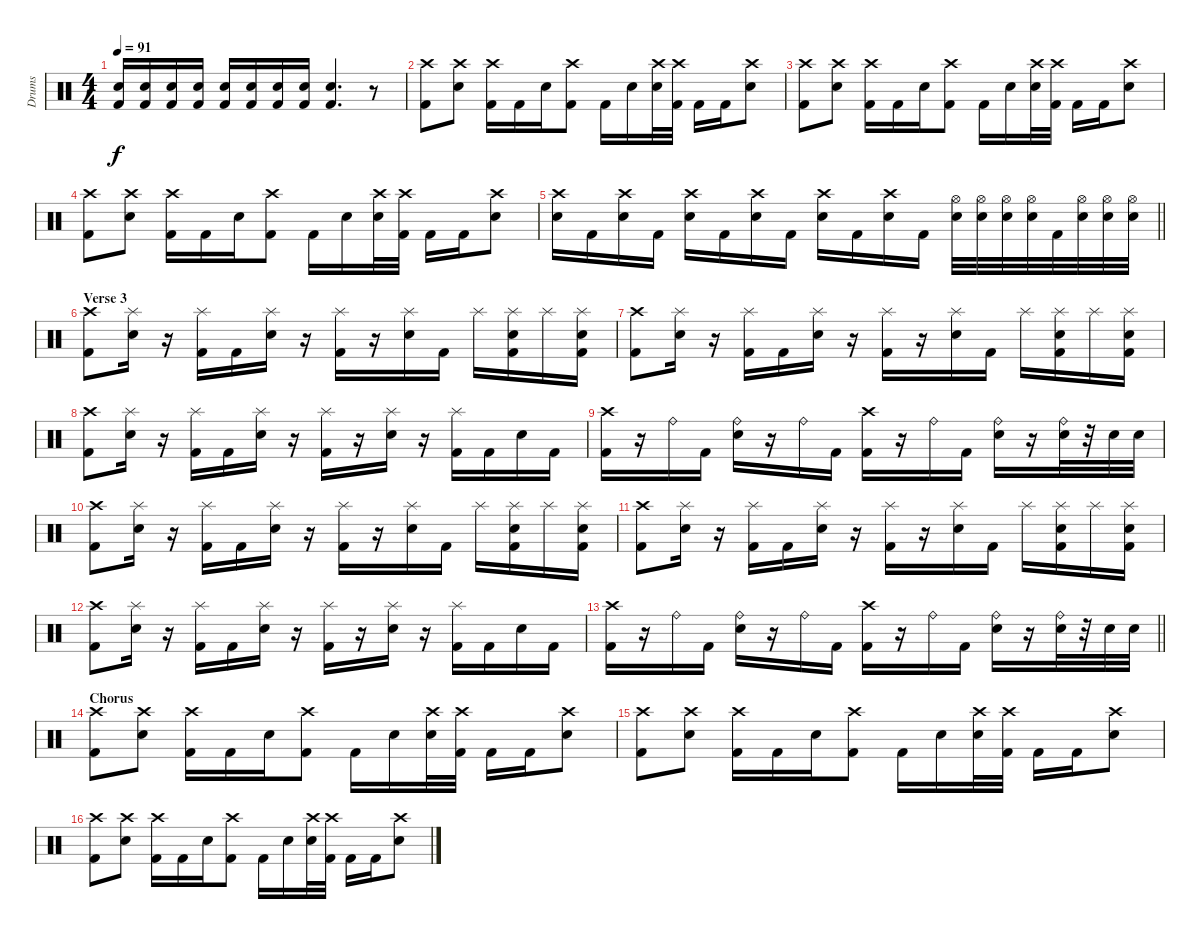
\track ("Drums" "Drums") {instrument percussion}
\staff {score}
\articulation defaults
\ts (4 4)
\tempo 91
\clef neutral
\ks c
("Electric Snare (hit)" "Kick (hit) 2").16{dy f} ("Electric Snare (hit)" "Kick (hit) 2").16 ("Electric Snare (hit)" "Kick (hit) 2").16 ("Electric Snare (hit)" "Kick (hit) 2").16 ("Electric Snare (hit)" "Kick (hit) 2").16 ("Electric Snare (hit)" "Kick (hit) 2").16 ("Electric Snare (hit)" "Kick (hit) 2").16 ("Electric Snare (hit)" "Kick (hit) 2").16 ("Electric Snare (hit)" "Kick (hit) 2").4{d} r.8 |
("Crash high (hit)" "Kick (hit) 2").8 ("Crash high (hit)" "Electric Snare (hit)").8 ("Crash high (hit)" "Kick (hit) 2").16 "Kick (hit) 2".16 "Electric Snare (hit)".16 ("Crash high (hit)" "Kick (hit) 2").8 "Kick (hit) 2".16 "Electric Snare (hit)".16 ("Crash high (hit)" "Electric Snare (hit)").32 ("Crash high (hit)" "Kick (hit) 2").32 "Kick (hit) 2".16 "Kick (hit) 2".16 ("Crash high (hit)" "Electric Snare (hit)").8 |
("Crash high (hit)" "Kick (hit) 2").8 ("Crash high (hit)" "Electric Snare (hit)").8 ("Crash high (hit)" "Kick (hit) 2").16 "Kick (hit) 2".16 "Electric Snare (hit)".16 ("Crash high (hit)" "Kick (hit) 2").8 "Kick (hit) 2".16 "Electric Snare (hit)".16 ("Crash high (hit)" "Electric Snare (hit)").32 ("Crash high (hit)" "Kick (hit) 2").32 "Kick (hit) 2".16 "Kick (hit) 2".16 ("Crash high (hit)" "Electric Snare (hit)").8 |
("Crash high (hit)" "Kick (hit) 2").8 ("Crash high (hit)" "Electric Snare (hit)").8 ("Crash high (hit)" "Kick (hit) 2").16 "Kick (hit) 2".16 "Electric Snare (hit)".16 ("Crash high (hit)" "Kick (hit) 2").8 "Kick (hit) 2".16 "Electric Snare (hit)".16 ("Crash high (hit)" "Electric Snare (hit)").32 ("Crash high (hit)" "Kick (hit) 2").32 "Kick (hit) 2".16 "Kick (hit) 2".16 ("Crash high (hit)" "Electric Snare (hit)").8 |
\barLineRight lightlight
("Crash high (hit)" "Electric Snare (hit)").16 "Kick (hit) 2".16 ("Crash high (hit)" "Electric Snare (hit)").16 "Kick (hit) 2".16 ("Crash high (hit)" "Electric Snare (hit)").16 "Kick (hit) 2".16 ("Crash high (hit)" "Electric Snare (hit)").16 "Kick (hit) 2".16 ("Crash high (hit)" "Electric Snare (hit)").16 "Kick (hit) 2".16 ("Crash high (hit)" "Electric Snare (hit)").16 "Kick (hit) 2".16 ("Hi-Hat (open)" "Electric Snare (hit)").32 ("Hi-Hat (open)" "Electric Snare (hit)").32 ("Hi-Hat (open)" "Electric Snare (hit)").32 ("Hi-Hat (open)" "Electric Snare (hit)").32 "Kick (hit) 2".32 ("Hi-Hat (open)" "Electric Snare (hit)").32 ("Hi-Hat (open)" "Electric Snare (hit)").32 ("Hi-Hat (open)" "Electric Snare (hit)").32 |
\section ("" "Verse 3")
("Crash high (hit)" "Kick (hit) 2").8 ("Splash (hit)" "Electric Snare (hit)").16 r.16 ("Splash (hit)" "Kick (hit) 2").16 "Kick (hit) 2".16 ("Splash (hit)" "Electric Snare (hit)").16 r.16 ("Splash (hit)" "Kick (hit) 2").16 r.16 ("Splash (hit)" "Electric Snare (hit)").16 "Kick (hit) 2".16 "Splash (hit)".16 ("Splash (hit)" "Electric Snare (hit)" "Kick (hit) 2").16 "Splash (hit)".16 ("Splash (hit)" "Electric Snare (hit)" "Kick (hit) 2").16 |
("Crash high (hit)" "Kick (hit) 2").8 ("Splash (hit)" "Electric Snare (hit)").16 r.16 ("Splash (hit)" "Kick (hit) 2").16 "Kick (hit) 2".16 ("Splash (hit)" "Electric Snare (hit)").16 r.16 ("Splash (hit)" "Kick (hit) 2").16 r.16 ("Splash (hit)" "Electric Snare (hit)").16 "Kick (hit) 2".16 "Splash (hit)".16 ("Splash (hit)" "Electric Snare (hit)" "Kick (hit) 2").16 "Splash (hit)".16 ("Splash (hit)" "Electric Snare (hit)" "Kick (hit) 2").16 |
("Crash high (hit)" "Kick (hit) 2").8 ("Splash (hit)" "Electric Snare (hit)").16 r.16 ("Splash (hit)" "Kick (hit) 2").16 "Kick (hit) 2".16 ("Splash (hit)" "Electric Snare (hit)").16 r.16 ("Splash (hit)" "Kick (hit) 2").16 r.16 ("Splash (hit)" "Electric Snare (hit)").16 r.16 ("Splash (hit)" "Kick (hit) 2").16 "Kick (hit) 2".16 "Electric Snare (hit)".16 "Kick (hit) 2".16 |
("Crash high (hit)" "Kick (hit) 2").16 r.16 "Ride (bell)".16 "Kick (hit) 2".16 ("Ride (bell)" "Electric Snare (hit)").16 r.16 "Ride (bell)".16 "Kick (hit) 2".16 ("Crash high (hit)" "Kick (hit) 2").16 r.16 "Ride (bell)".16 "Kick (hit) 2".16 ("Ride (bell)" "Electric Snare (hit)").16 r.16 ("Ride (bell)" "Electric Snare (hit)").32 r.32 "Electric Snare (hit)".32 "Electric Snare (hit)".32 |
("Crash high (hit)" "Kick (hit) 2").8 ("Splash (hit)" "Electric Snare (hit)").16 r.16 ("Splash (hit)" "Kick (hit) 2").16 "Kick (hit) 2".16 ("Splash (hit)" "Electric Snare (hit)").16 r.16 ("Splash (hit)" "Kick (hit) 2").16 r.16 ("Splash (hit)" "Electric Snare (hit)").16 "Kick (hit) 2".16 "Splash (hit)".16 ("Splash (hit)" "Electric Snare (hit)" "Kick (hit) 2").16 "Splash (hit)".16 ("Splash (hit)" "Electric Snare (hit)" "Kick (hit) 2").16 |
("Crash high (hit)" "Kick (hit) 2").8 ("Splash (hit)" "Electric Snare (hit)").16 r.16 ("Splash (hit)" "Kick (hit) 2").16 "Kick (hit) 2".16 ("Splash (hit)" "Electric Snare (hit)").16 r.16 ("Splash (hit)" "Kick (hit) 2").16 r.16 ("Splash (hit)" "Electric Snare (hit)").16 "Kick (hit) 2".16 "Splash (hit)".16 ("Splash (hit)" "Electric Snare (hit)" "Kick (hit) 2").16 "Splash (hit)".16 ("Splash (hit)" "Electric Snare (hit)" "Kick (hit) 2").16 |
("Crash high (hit)" "Kick (hit) 2").8 ("Splash (hit)" "Electric Snare (hit)").16 r.16 ("Splash (hit)" "Kick (hit) 2").16 "Kick (hit) 2".16 ("Splash (hit)" "Electric Snare (hit)").16 r.16 ("Splash (hit)" "Kick (hit) 2").16 r.16 ("Splash (hit)" "Electric Snare (hit)").16 r.16 ("Splash (hit)" "Kick (hit) 2").16 "Kick (hit) 2".16 "Electric Snare (hit)".16 "Kick (hit) 2".16 |
\barLineRight lightlight
("Crash high (hit)" "Kick (hit) 2").16 r.16 "Ride (bell)".16 "Kick (hit) 2".16 ("Ride (bell)" "Electric Snare (hit)").16 r.16 "Ride (bell)".16 "Kick (hit) 2".16 ("Crash high (hit)" "Kick (hit) 2").16 r.16 "Ride (bell)".16 "Kick (hit) 2".16 ("Ride (bell)" "Electric Snare (hit)").16 r.16 ("Ride (bell)" "Electric Snare (hit)").32 r.32 "Electric Snare (hit)".32 "Electric Snare (hit)".32 |
\section ("" "Chorus")
("Crash high (hit)" "Kick (hit) 2").8 ("Crash high (hit)" "Electric Snare (hit)").8 ("Crash high (hit)" "Kick (hit) 2").16 "Kick (hit) 2".16 "Electric Snare (hit)".16 ("Crash high (hit)" "Kick (hit) 2").8 "Kick (hit) 2".16 "Electric Snare (hit)".16 ("Crash high (hit)" "Electric Snare (hit)").32 ("Crash high (hit)" "Kick (hit) 2").32 "Kick (hit) 2".16 "Kick (hit) 2".16 ("Crash high (hit)" "Electric Snare (hit)").8 |
("Crash high (hit)" "Kick (hit) 2").8 ("Crash high (hit)" "Electric Snare (hit)").8 ("Crash high (hit)" "Kick (hit) 2").16 "Kick (hit) 2".16 "Electric Snare (hit)".16 ("Crash high (hit)" "Kick (hit) 2").8 "Kick (hit) 2".16 "Electric Snare (hit)".16 ("Crash high (hit)" "Electric Snare (hit)").32 ("Crash high (hit)" "Kick (hit) 2").32 "Kick (hit) 2".16 "Kick (hit) 2".16 ("Crash high (hit)" "Electric Snare (hit)").8 |
("Crash high (hit)" "Kick (hit) 2").8 ("Crash high (hit)" "Electric Snare (hit)").8 ("Crash high (hit)" "Kick (hit) 2").16 "Kick (hit) 2".16 "Electric Snare (hit)".16 ("Crash high (hit)" "Kick (hit) 2").8 "Kick (hit) 2".16 "Electric Snare (hit)".16 ("Crash high (hit)" "Electric Snare (hit)").32 ("Crash high (hit)" "Kick (hit) 2").32 "Kick (hit) 2".16 "Kick (hit) 2".16 ("Crash high (hit)" "Electric Snare (hit)").8
